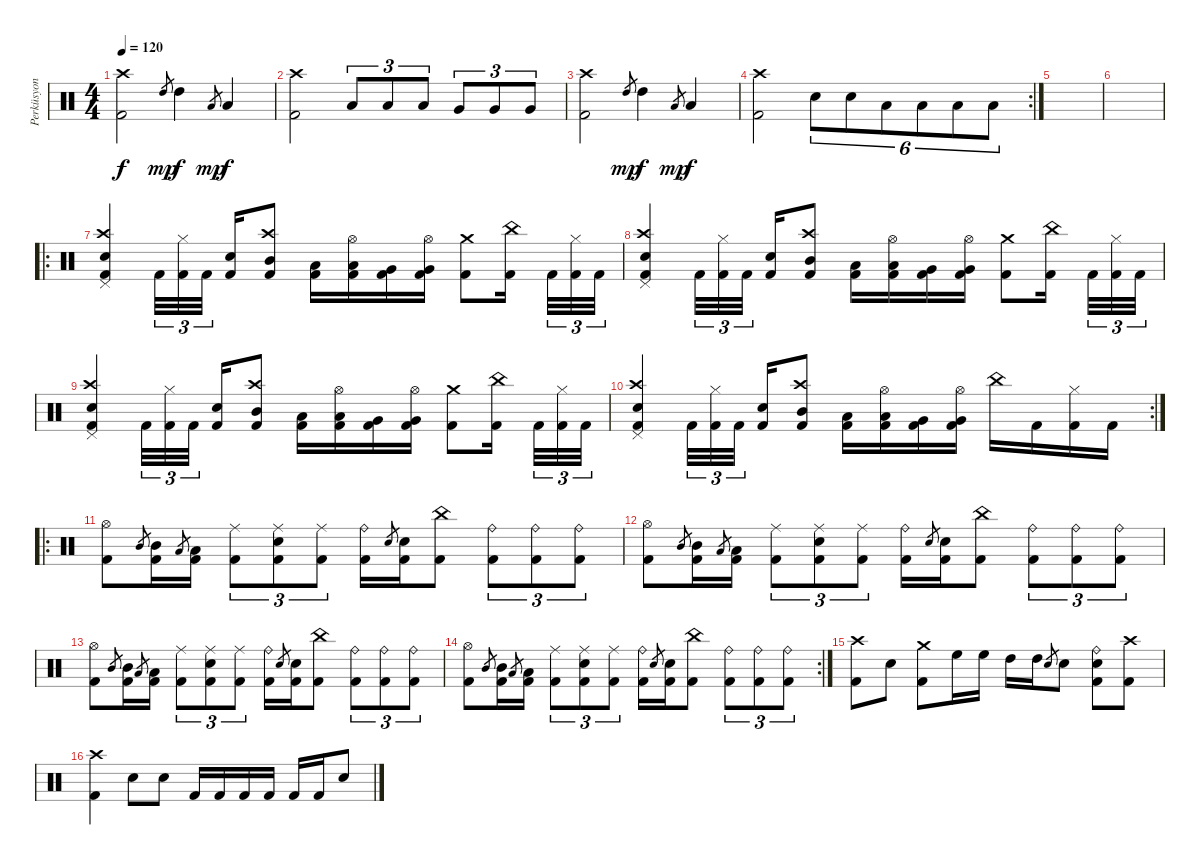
\track ("Perküsyon" "Perküsyon") {instrument percussion}
\staff {score}
\articulation defaults
\ts (4 4)
\tempo 120
\clef neutral
\ks c
("Kick (hit) 2" "Crash high (hit)").2{dy f} "High Tom (hit)".8{gr dy mp} "High Tom (hit)".4{dy f} "Low Tom (hit)".8{gr dy mp} "Low Tom (hit)".4{dy f} |
("Kick (hit) 2" "Crash high (hit)").2 "Low Tom (hit)".8{tu (3 2)} "Low Tom (hit)".8{tu (3 2)} "Low Tom (hit)".8{tu (3 2)} "Very Low Tom (hit)".8{tu (3 2)} "Very Low Tom (hit)".8{tu (3 2)} "Very Low Tom (hit)".8{tu (3 2)} |
("Kick (hit) 2" "Crash high (hit)").2 "High Tom (hit)".8{gr dy mp} "High Tom (hit)".4{dy f} "Low Tom (hit)".8{gr dy mp} "Low Tom (hit)".4{dy f} |
\rc 2
("Crash high (hit)" "Kick (hit) 2").2 "Snare (hit) 2".8{tu (6 4)} "Snare (hit) 2".8{tu (6 4)} "Low Tom (hit)".8{tu (6 4)} "Low Tom (hit)".8{tu (6 4)} "Low Floor Tom (hit)".8{tu (6 4)} "Low Floor Tom (hit)".8{tu (6 4)} |
|
|
\ro
("Snare (hit) 2" "Crash high (hit)" "Kick (hit) 2" "Pedal Hi-Hat (hit)").4 "Kick (hit) 2".32{tu (3 2)} ("Kick (hit) 2" "Hi-Hat (closed)").32{tu (3 2)} "Kick (hit) 2".32{tu (3 2)} ("Kick (hit) 2" "Snare (hit) 2").16 ("Kick (hit) 2" "Mid Tom (hit)" "Crash high (hit)").8 ("Kick (hit) 2" "Low Tom (hit)").16 ("Kick (hit) 2" "Low Tom (hit)" "Hi-Hat (open)").16 ("Kick (hit) 2" "Very Low Tom (hit)").16 ("Kick (hit) 2" "Very Low Tom (hit)" "Hi-Hat (open)").16 ("Kick (hit) 2" "Crash medium (hit)").8 ("Kick (hit) 2" "China (hit)").16 "Kick (hit) 2".32{tu (3 2)} ("Kick (hit) 2" "Hi-Hat (closed)").32{tu (3 2)} "Kick (hit) 2".32{tu (3 2)} |
("Snare (hit) 2" "Crash high (hit)" "Kick (hit) 2" "Pedal Hi-Hat (hit)").4 "Kick (hit) 2".32{tu (3 2)} ("Kick (hit) 2" "Hi-Hat (closed)").32{tu (3 2)} "Kick (hit) 2".32{tu (3 2)} ("Kick (hit) 2" "Snare (hit) 2").16 ("Kick (hit) 2" "Mid Tom (hit)" "Crash high (hit)").8 ("Kick (hit) 2" "Low Tom (hit)").16 ("Kick (hit) 2" "Low Tom (hit)" "Hi-Hat (open)").16 ("Kick (hit) 2" "Very Low Tom (hit)").16 ("Kick (hit) 2" "Very Low Tom (hit)" "Hi-Hat (open)").16 ("Kick (hit) 2" "Crash medium (hit)").8 ("Kick (hit) 2" "China (hit)").16 "Kick (hit) 2".32{tu (3 2)} ("Kick (hit) 2" "Hi-Hat (closed)").32{tu (3 2)} "Kick (hit) 2".32{tu (3 2)} |
("Snare (hit) 2" "Crash high (hit)" "Kick (hit) 2" "Pedal Hi-Hat (hit)").4 "Kick (hit) 2".32{tu (3 2)} ("Kick (hit) 2" "Hi-Hat (closed)").32{tu (3 2)} "Kick (hit) 2".32{tu (3 2)} ("Kick (hit) 2" "Snare (hit) 2").16 ("Kick (hit) 2" "Mid Tom (hit)" "Crash high (hit)").8 ("Kick (hit) 2" "Low Tom (hit)").16 ("Kick (hit) 2" "Low Tom (hit)" "Hi-Hat (open)").16 ("Kick (hit) 2" "Very Low Tom (hit)").16 ("Kick (hit) 2" "Very Low Tom (hit)" "Hi-Hat (open)").16 ("Kick (hit) 2" "Crash medium (hit)").8 ("Kick (hit) 2" "China (hit)").16 "Kick (hit) 2".32{tu (3 2)} ("Kick (hit) 2" "Hi-Hat (closed)").32{tu (3 2)} "Kick (hit) 2".32{tu (3 2)} |
\rc 2
("Snare (hit) 2" "Crash high (hit)" "Kick (hit) 2" "Pedal Hi-Hat (hit)").4 "Kick (hit) 2".32{tu (3 2)} ("Kick (hit) 2" "Hi-Hat (closed)").32{tu (3 2)} "Kick (hit) 2".32{tu (3 2)} ("Kick (hit) 2" "Snare (hit) 2").16 ("Kick (hit) 2" "Mid Tom (hit)" "Crash high (hit)").8 ("Kick (hit) 2" "Low Tom (hit)").16 ("Kick (hit) 2" "Low Tom (hit)" "Hi-Hat (open)").16 ("Kick (hit) 2" "Very Low Tom (hit)").16 ("Kick (hit) 2" "Very Low Tom (hit)" "Hi-Hat (open)").16 "China (hit)".16 "Kick (hit) 2".16 ("Kick (hit) 2" "Hi-Hat (closed)").16 "Kick (hit) 2".16 |
\ro
("Kick (hit) 2" "Hi-Hat (open)").8 "Mid Tom (hit)".8{gr} ("Kick (hit) 2" "Mid Tom (hit)").16 "Low Tom (hit)".8{gr} ("Kick (hit) 2" "Low Tom (hit)").16 ("Kick (hit) 2" "Ride (middle)").8{tu (3 2)} ("Kick (hit) 2" "Snare (hit) 2" "Ride (middle)").8{tu (3 2)} ("Kick (hit) 2" "Ride (middle)").8{tu (3 2)} ("Kick (hit) 2" "Ride (bell)").16 "Snare (hit) 2".8{gr} ("Kick (hit) 2" "Snare (hit) 2").16 ("Kick (hit) 2" "China (hit)").8 ("Kick (hit) 2" "Ride (bell)").8{tu (3 2)} ("Kick (hit) 2" "Ride (bell)").8{tu (3 2)} ("Kick (hit) 2" "Ride (bell)").8{tu (3 2)} |
("Kick (hit) 2" "Hi-Hat (open)").8 "Mid Tom (hit)".8{gr} ("Kick (hit) 2" "Mid Tom (hit)").16 "Low Tom (hit)".8{gr} ("Kick (hit) 2" "Low Tom (hit)").16 ("Kick (hit) 2" "Ride (middle)").8{tu (3 2)} ("Kick (hit) 2" "Snare (hit) 2" "Ride (middle)").8{tu (3 2)} ("Kick (hit) 2" "Ride (middle)").8{tu (3 2)} ("Kick (hit) 2" "Ride (bell)").16 "Snare (hit) 2".8{gr} ("Kick (hit) 2" "Snare (hit) 2").16 ("Kick (hit) 2" "China (hit)").8 ("Kick (hit) 2" "Ride (bell)").8{tu (3 2)} ("Kick (hit) 2" "Ride (bell)").8{tu (3 2)} ("Kick (hit) 2" "Ride (bell)").8{tu (3 2)} |
("Kick (hit) 2" "Hi-Hat (open)").8 "Mid Tom (hit)".8{gr} ("Kick (hit) 2" "Mid Tom (hit)").16 "Low Tom (hit)".8{gr} ("Kick (hit) 2" "Low Tom (hit)").16 ("Kick (hit) 2" "Ride (middle)").8{tu (3 2)} ("Kick (hit) 2" "Snare (hit) 2" "Ride (middle)").8{tu (3 2)} ("Kick (hit) 2" "Ride (middle)").8{tu (3 2)} ("Kick (hit) 2" "Ride (bell)").16 "Snare (hit) 2".8{gr} ("Kick (hit) 2" "Snare (hit) 2").16 ("Kick (hit) 2" "China (hit)").8 ("Kick (hit) 2" "Ride (bell)").8{tu (3 2)} ("Kick (hit) 2" "Ride (bell)").8{tu (3 2)} ("Kick (hit) 2" "Ride (bell)").8{tu (3 2)} |
\rc 2
("Kick (hit) 2" "Hi-Hat (open)").8 "Mid Tom (hit)".8{gr} ("Kick (hit) 2" "Mid Tom (hit)").16 "Low Tom (hit)".8{gr} ("Kick (hit) 2" "Low Tom (hit)").16 ("Kick (hit) 2" "Ride (middle)").8{tu (3 2)} ("Kick (hit) 2" "Snare (hit) 2" "Ride (middle)").8{tu (3 2)} ("Kick (hit) 2" "Ride (middle)").8{tu (3 2)} ("Kick (hit) 2" "Ride (bell)").16 "Snare (hit) 2".8{gr} ("Kick (hit) 2" "Snare (hit) 2").16 ("Kick (hit) 2" "China (hit)").8 ("Kick (hit) 2" "Ride (bell)").8{tu (3 2)} ("Kick (hit) 2" "Ride (bell)").8{tu (3 2)} ("Kick (hit) 2" "Ride (bell)").8{tu (3 2)} |
("Crash high (hit)" "Kick (hit) 2").8{volume 16} "Snare (hit) 2".8 ("Crash medium (hit)" "Kick (hit) 2").8 "High Floor Tom (hit)".16 "High Floor Tom (hit)".16 "High Tom (hit)".16 "High Tom (hit)".16 "Snare (hit) 2".8{gr} "Snare (hit) 2".8 ("Kick (hit) 2" "Snare (hit) 2" "Ride (bell)").8 ("Crash high (hit)" "Kick (hit) 2").8 |
("Crash high (hit)" "Kick (hit) 2").4 "Snare (hit) 2".8 "Snare (hit) 2".8 "Kick (hit) 2".16 "Kick (hit) 2".16 "Kick (hit) 2".16 "Kick (hit) 2".16 "Kick (hit) 2".16 "Kick (hit) 2".16 "Snare (hit) 2".8
